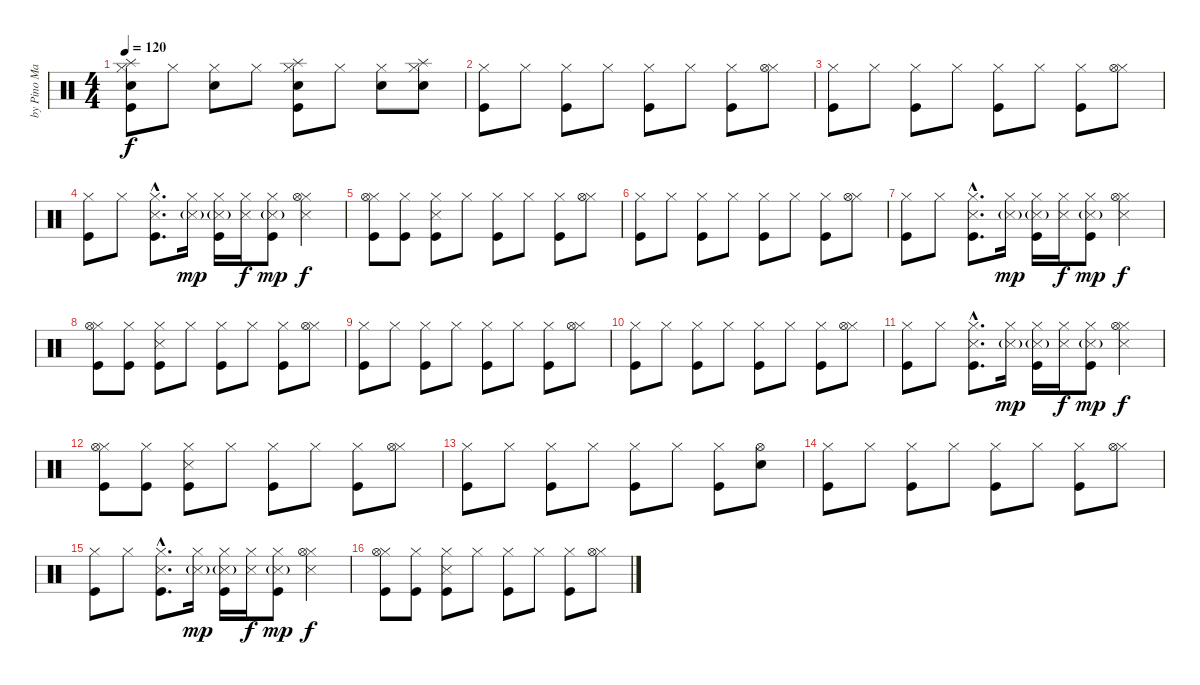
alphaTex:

\track ("by Pino Mariconda - e Gianni De Vita" "by Pino Ma") {instrument percussion}
\staff {score}
\articulation defaults
\ts (4 4)
\tempo 120
\clef neutral
\ks c
("Splash (hit)" "Hi-Hat (closed)" "Snare (hit) 2" "Kick (hit)").8{dy f} "Hi-Hat (closed)".8 ("Hi-Hat (closed)" "Snare (hit) 2").8 "Hi-Hat (closed)".8 ("Splash (hit)" "Hi-Hat (closed)" "Snare (hit) 2" "Kick (hit)").8 "Hi-Hat (closed)".8 ("Hi-Hat (closed)" "Snare (hit) 2").8 ("Splash (hit)" "Hi-Hat (closed)" "Snare (hit) 2").8 |
("Hi-Hat (closed)" "Kick (hit)").8 "Hi-Hat (closed)".8 ("Hi-Hat (closed)" "Kick (hit)").8 "Hi-Hat (closed)".8 ("Hi-Hat (closed)" "Kick (hit)").8 "Hi-Hat (closed)".8 ("Hi-Hat (closed)" "Kick (hit)").8 ("Hi-Hat (closed)" "Hi-Hat (open)").8 |
("Hi-Hat (closed)" "Kick (hit)").8 "Hi-Hat (closed)".8 ("Hi-Hat (closed)" "Kick (hit)").8 "Hi-Hat (closed)".8 ("Hi-Hat (closed)" "Kick (hit)").8 "Hi-Hat (closed)".8 ("Hi-Hat (closed)" "Kick (hit)").8 ("Hi-Hat (closed)" "Hi-Hat (open)").8 |
("Hi-Hat (closed)" "Kick (hit)").8 "Hi-Hat (closed)".8 ("Hi-Hat (closed)"{hac} "Kick (hit)"{hac} "Snare (side stick) 3"{hac}).8{d} ("Hi-Hat (closed)" "Snare (side stick) 3"{g}).16{dy mp} ("Hi-Hat (closed)" "Kick (hit)" "Snare (side stick) 3"{g}).16 ("Hi-Hat (closed)" "Snare (side stick) 3").16{dy f} ("Hi-Hat (closed)" "Kick (hit)" "Snare (side stick) 3"{g}).8{dy mp} ("Hi-Hat (closed)" "Hi-Hat (open)" "Snare (side stick) 3").4{dy f} |
("Hi-Hat (closed)" "Kick (hit)" "Hi-Hat (open)").8 ("Hi-Hat (closed)" "Kick (hit)").8 ("Hi-Hat (closed)" "Kick (hit)" "Snare (side stick) 3").8 "Hi-Hat (closed)".8 ("Hi-Hat (closed)" "Kick (hit)").8 "Hi-Hat (closed)".8 ("Hi-Hat (closed)" "Kick (hit)").8 ("Hi-Hat (closed)" "Hi-Hat (open)").8 |
("Hi-Hat (closed)" "Kick (hit)").8 "Hi-Hat (closed)".8 ("Hi-Hat (closed)" "Kick (hit)").8 "Hi-Hat (closed)".8 ("Hi-Hat (closed)" "Kick (hit)").8 "Hi-Hat (closed)".8 ("Hi-Hat (closed)" "Kick (hit)").8 ("Hi-Hat (closed)" "Hi-Hat (open)").8 |
("Hi-Hat (closed)" "Kick (hit)").8 "Hi-Hat (closed)".8 ("Hi-Hat (closed)"{hac} "Kick (hit)"{hac} "Snare (side stick) 3"{hac}).8{d} ("Hi-Hat (closed)" "Snare (side stick) 3"{g}).16{dy mp} ("Hi-Hat (closed)" "Kick (hit)" "Snare (side stick) 3"{g}).16 ("Hi-Hat (closed)" "Snare (side stick) 3").16{dy f} ("Hi-Hat (closed)" "Kick (hit)" "Snare (side stick) 3"{g}).8{dy mp} ("Hi-Hat (closed)" "Hi-Hat (open)" "Snare (side stick) 3").4{dy f} |
("Hi-Hat (closed)" "Kick (hit)" "Hi-Hat (open)").8 ("Hi-Hat (closed)" "Kick (hit)").8 ("Hi-Hat (closed)" "Kick (hit)" "Snare (side stick) 3").8 "Hi-Hat (closed)".8 ("Hi-Hat (closed)" "Kick (hit)").8 "Hi-Hat (closed)".8 ("Hi-Hat (closed)" "Kick (hit)").8 ("Hi-Hat (closed)" "Hi-Hat (open)").8 |
("Hi-Hat (closed)" "Kick (hit)").8 "Hi-Hat (closed)".8 ("Hi-Hat (closed)" "Kick (hit)").8 "Hi-Hat (closed)".8 ("Hi-Hat (closed)" "Kick (hit)").8 "Hi-Hat (closed)".8 ("Hi-Hat (closed)" "Kick (hit)").8 ("Hi-Hat (closed)" "Hi-Hat (open)").8 |
("Hi-Hat (closed)" "Kick (hit)").8 "Hi-Hat (closed)".8 ("Hi-Hat (closed)" "Kick (hit)").8 "Hi-Hat (closed)".8 ("Hi-Hat (closed)" "Kick (hit)").8 "Hi-Hat (closed)".8 ("Hi-Hat (closed)" "Kick (hit)").8 ("Hi-Hat (closed)" "Hi-Hat (open)").8 |
("Hi-Hat (closed)" "Kick (hit)").8 "Hi-Hat (closed)".8 ("Hi-Hat (closed)"{hac} "Kick (hit)"{hac} "Snare (side stick) 3"{hac}).8{d} ("Hi-Hat (closed)" "Snare (side stick) 3"{g}).16{dy mp} ("Hi-Hat (closed)" "Kick (hit)" "Snare (side stick) 3"{g}).16 ("Hi-Hat (closed)" "Snare (side stick) 3").16{dy f} ("Hi-Hat (closed)" "Kick (hit)" "Snare (side stick) 3"{g}).8{dy mp} ("Hi-Hat (closed)" "Hi-Hat (open)" "Snare (side stick) 3").4{dy f} |
("Hi-Hat (closed)" "Kick (hit)" "Hi-Hat (open)").8 ("Hi-Hat (closed)" "Kick (hit)").8 ("Hi-Hat (closed)" "Kick (hit)" "Snare (side stick) 3").8 "Hi-Hat (closed)".8 ("Hi-Hat (closed)" "Kick (hit)").8 "Hi-Hat (closed)".8 ("Hi-Hat (closed)" "Kick (hit)").8 ("Hi-Hat (closed)" "Hi-Hat (open)").8 |
("Hi-Hat (closed)" "Kick (hit)").8 "Hi-Hat (closed)".8 ("Hi-Hat (closed)" "Kick (hit)").8 "Hi-Hat (closed)".8 ("Hi-Hat (closed)" "Kick (hit)").8 "Hi-Hat (closed)".8 ("Hi-Hat (closed)" "Kick (hit)").8 ("Snare (hit)" "Hi-Hat (open)").8 |
("Hi-Hat (closed)" "Kick (hit)").8 "Hi-Hat (closed)".8 ("Hi-Hat (closed)" "Kick (hit)").8 "Hi-Hat (closed)".8 ("Hi-Hat (closed)" "Kick (hit)").8 "Hi-Hat (closed)".8 ("Hi-Hat (closed)" "Kick (hit)").8 ("Hi-Hat (closed)" "Hi-Hat (open)").8 |
("Hi-Hat (closed)" "Kick (hit)").8 "Hi-Hat (closed)".8 ("Hi-Hat (closed)"{hac} "Kick (hit)"{hac} "Snare (side stick) 3"{hac}).8{d} ("Hi-Hat (closed)" "Snare (side stick) 3"{g}).16{dy mp} ("Hi-Hat (closed)" "Kick (hit)" "Snare (side stick) 3"{g}).16 ("Hi-Hat (closed)" "Snare (side stick) 3").16{dy f} ("Hi-Hat (closed)" "Kick (hit)" "Snare (side stick) 3"{g}).8{dy mp} ("Hi-Hat (closed)" "Hi-Hat (open)" "Snare (side stick) 3").4{dy f} |
("Hi-Hat (closed)" "Kick (hit)" "Hi-Hat (open)").8 ("Hi-Hat (closed)" "Kick (hit)").8 ("Hi-Hat (closed)" "Kick (hit)" "Snare (side stick) 3").8 "Hi-Hat (closed)".8 ("Hi-Hat (closed)" "Kick (hit)").8 "Hi-Hat (closed)".8 ("Hi-Hat (closed)" "Kick (hit)").8 ("Hi-Hat (closed)" "Hi-Hat (open)").8
